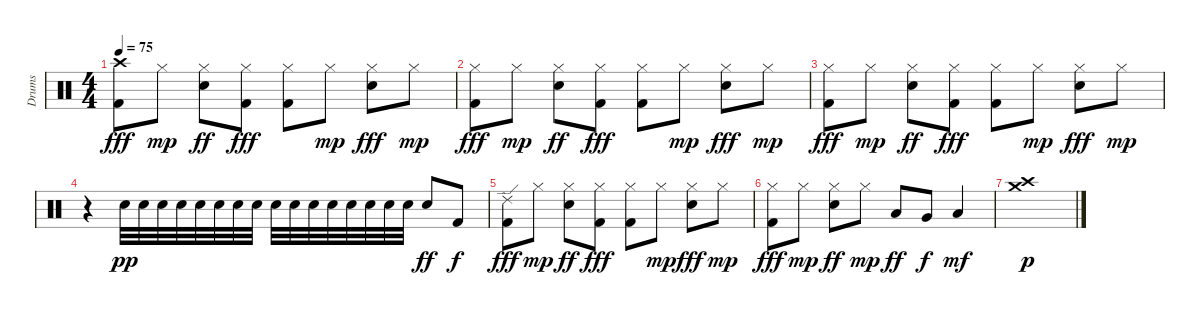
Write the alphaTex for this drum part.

\track ("Drums" "Drums") {instrument percussion}
\staff {score}
\articulation defaults
\ts (4 4)
\tempo 75
\clef neutral
\ks c
("Crash high (hit)" "Kick (hit) 2").8{dy fff} "Hi-Hat (closed)".8{dy mp} ("Hi-Hat (closed)" "Electric Snare (hit)").8{dy ff} ("Hi-Hat (closed)" "Kick (hit) 2").8{dy fff} ("Hi-Hat (closed)" "Kick (hit) 2").8 "Hi-Hat (closed)".8{dy mp} ("Hi-Hat (closed)" "Electric Snare (hit)").8{dy fff} "Hi-Hat (closed)".8{dy mp} |
("Hi-Hat (closed)" "Kick (hit) 2").8{dy fff} "Hi-Hat (closed)".8{dy mp} ("Hi-Hat (closed)" "Electric Snare (hit)").8{dy ff} ("Hi-Hat (closed)" "Kick (hit) 2").8{dy fff} ("Hi-Hat (closed)" "Kick (hit) 2").8 "Hi-Hat (closed)".8{dy mp} ("Hi-Hat (closed)" "Electric Snare (hit)").8{dy fff} "Hi-Hat (closed)".8{dy mp} |
("Hi-Hat (closed)" "Kick (hit) 2").8{dy fff} "Hi-Hat (closed)".8{dy mp} ("Hi-Hat (closed)" "Electric Snare (hit)").8{dy ff} ("Hi-Hat (closed)" "Kick (hit) 2").8{dy fff} ("Hi-Hat (closed)" "Kick (hit) 2").8 "Hi-Hat (closed)".8{dy mp} ("Hi-Hat (closed)" "Electric Snare (hit)").8{dy fff} "Hi-Hat (closed)".8{dy mp} |
r.4 "Electric Snare (hit)".32{dy pp} "Electric Snare (hit)".32 "Electric Snare (hit)".32 "Electric Snare (hit)".32 "Electric Snare (hit)".32 "Electric Snare (hit)".32 "Electric Snare (hit)".32 "Electric Snare (hit)".32 "Electric Snare (hit)".32 "Electric Snare (hit)".32 "Electric Snare (hit)".32 "Electric Snare (hit)".32 "Electric Snare (hit)".32 "Electric Snare (hit)".32 "Electric Snare (hit)".32 "Electric Snare (hit)".32 "Electric Snare (hit)".8{dy ff} "Kick (hit) 2".8{dy f} |
("Ride (edge) 2" "Kick (hit) 2").8{dy fff} "Hi-Hat (closed)".8{dy mp} ("Hi-Hat (closed)" "Electric Snare (hit)").8{dy ff} ("Hi-Hat (closed)" "Kick (hit) 2").8{dy fff} ("Hi-Hat (closed)" "Kick (hit) 2").8 "Hi-Hat (closed)".8{dy mp} ("Hi-Hat (closed)" "Electric Snare (hit)").8{dy fff} "Hi-Hat (closed)".8{dy mp} |
("Hi-Hat (closed)" "Kick (hit) 2").8{dy fff} "Hi-Hat (closed)".8{dy mp} ("Hi-Hat (closed)" "Electric Snare (hit)").8{dy ff} "Hi-Hat (closed)".8{dy mp} "Low Tom (hit)".8{dy ff} "Very Low Tom (hit)".8{dy f} "Low Floor Tom (hit)".4{dy mf} |
("Crash medium (hit)" "Crash high (hit)").1{dy p}
